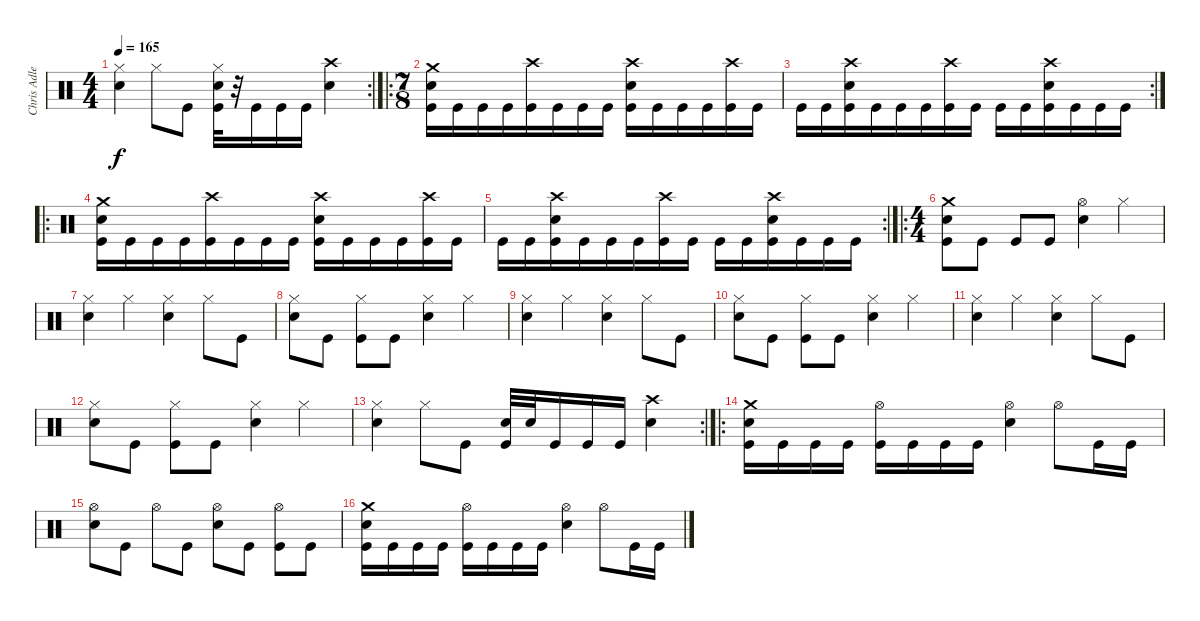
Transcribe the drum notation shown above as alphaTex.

\track ("Chris Adler" "Chris Adle") {instrument percussion}
\staff {score}
\articulation defaults
\rc 2
\ts (4 4)
\tempo 165
\clef neutral
\ks c
("Hi-Hat (closed)" "Electric Snare (hit)").4{dy f} "Hi-Hat (closed)".8 "Kick (hit)".8 ("Hi-Hat (closed)" "Electric Snare (hit)" "Kick (hit)").32 r.32 "Kick (hit)".16 "Kick (hit)".16 "Kick (hit)".16 ("Crash high (hit)" "Electric Snare (hit)").4 |
\ro
\ts (7 8)
("Crash medium (hit)" "Electric Snare (hit)" "Kick (hit)").16 "Kick (hit)".16 "Kick (hit)".16 "Kick (hit)".16 ("Crash high (hit)" "Kick (hit)").16 "Kick (hit)".16 "Kick (hit)".16 "Kick (hit)".16 ("Crash high (hit)" "Electric Snare (hit)" "Kick (hit)").16 "Kick (hit)".16 "Kick (hit)".16 "Kick (hit)".16 ("Crash high (hit)" "Kick (hit)").16 "Kick (hit)".16 |
\rc 2 "Kick (hit)".16 "Kick (hit)".16
("Crash high (hit)" "Electric Snare (hit)" "Kick (hit)").16 "Kick (hit)".16 "Kick (hit)".16 "Kick (hit)".16 ("Crash high (hit)" "Kick (hit)").16 "Kick (hit)".16 "Kick (hit)".16 "Kick (hit)".16 ("Crash high (hit)" "Electric Snare (hit)" "Kick (hit)").16 "Kick (hit)".16 "Kick (hit)".16 "Kick (hit)".16 |
\ro
("Crash medium (hit)" "Electric Snare (hit)" "Kick (hit)").16 "Kick (hit)".16 "Kick (hit)".16 "Kick (hit)".16 ("Crash high (hit)" "Kick (hit)").16 "Kick (hit)".16 "Kick (hit)".16 "Kick (hit)".16 ("Crash high (hit)" "Electric Snare (hit)" "Kick (hit)").16 "Kick (hit)".16 "Kick (hit)".16 "Kick (hit)".16 ("Crash high (hit)" "Kick (hit)").16 "Kick (hit)".16 |
\rc 2 "Kick (hit)".16 "Kick (hit)".16
("Crash high (hit)" "Electric Snare (hit)" "Kick (hit)").16 "Kick (hit)".16 "Kick (hit)".16 "Kick (hit)".16 ("Crash high (hit)" "Kick (hit)").16 "Kick (hit)".16 "Kick (hit)".16 "Kick (hit)".16 ("Crash high (hit)" "Electric Snare (hit)" "Kick (hit)").16 "Kick (hit)".16 "Kick (hit)".16 "Kick (hit)".16 |
\ro
\ts (4 4)
("Crash medium (hit)" "Electric Snare (hit)" "Kick (hit)").8 "Kick (hit)".8 "Kick (hit)".8 "Kick (hit)".8 ("Hi-Hat (open)" "Electric Snare (hit)").4 "Hi-Hat (closed)".4 |
("Hi-Hat (closed)" "Electric Snare (hit)").4 "Hi-Hat (closed)".4 ("Hi-Hat (closed)" "Electric Snare (hit)").4 "Hi-Hat (closed)".8 "Kick (hit)".8 |
("Hi-Hat (closed)" "Electric Snare (hit)").8 "Kick (hit)".8 ("Hi-Hat (closed)" "Kick (hit)").8 "Kick (hit)".8 ("Hi-Hat (closed)" "Electric Snare (hit)").4 "Hi-Hat (closed)".4 |
("Hi-Hat (closed)" "Electric Snare (hit)").4 "Hi-Hat (closed)".4 ("Hi-Hat (closed)" "Electric Snare (hit)").4 "Hi-Hat (closed)".8 "Kick (hit)".8 |
("Hi-Hat (closed)" "Electric Snare (hit)").8 "Kick (hit)".8 ("Hi-Hat (closed)" "Kick (hit)").8 "Kick (hit)".8 ("Hi-Hat (closed)" "Electric Snare (hit)").4 "Hi-Hat (closed)".4 |
("Hi-Hat (closed)" "Electric Snare (hit)").4 "Hi-Hat (closed)".4 ("Hi-Hat (closed)" "Electric Snare (hit)").4 "Hi-Hat (closed)".8 "Kick (hit)".8 |
("Hi-Hat (closed)" "Electric Snare (hit)").8 "Kick (hit)".8 ("Hi-Hat (closed)" "Kick (hit)").8 "Kick (hit)".8 ("Hi-Hat (closed)" "Electric Snare (hit)").4 "Hi-Hat (closed)".4 |
\rc 2
("Hi-Hat (closed)" "Electric Snare (hit)").4 "Hi-Hat (closed)".8 "Kick (hit)".8 ("Electric Snare (hit)" "Kick (hit)").32 "Electric Snare (hit)".32 "Kick (hit)".16 "Kick (hit)".16 "Kick (hit)".16 ("Crash high (hit)" "Electric Snare (hit)").4 |
\ro
("Crash medium (hit)" "Electric Snare (hit)" "Kick (hit)").16 "Kick (hit)".16 "Kick (hit)".16 "Kick (hit)".16 ("Hi-Hat (open)" "Kick (hit)").16 "Kick (hit)".16 "Kick (hit)".16 "Kick (hit)".16 ("Hi-Hat (open)" "Electric Snare (hit)").4 "Hi-Hat (open)".8 "Kick (hit)".16 "Kick (hit)".16 |
("Hi-Hat (open)" "Electric Snare (hit)").8 "Kick (hit)".8 "Hi-Hat (open)".8 "Kick (hit)".8 ("Hi-Hat (open)" "Electric Snare (hit)").8 "Kick (hit)".8 ("Hi-Hat (open)" "Kick (hit)").8 "Kick (hit)".8 |
("Crash medium (hit)" "Electric Snare (hit)" "Kick (hit)").16 "Kick (hit)".16 "Kick (hit)".16 "Kick (hit)".16 ("Hi-Hat (open)" "Kick (hit)").16 "Kick (hit)".16 "Kick (hit)".16 "Kick (hit)".16 ("Hi-Hat (open)" "Electric Snare (hit)").4 "Hi-Hat (open)".8 "Kick (hit)".16 "Kick (hit)".16
